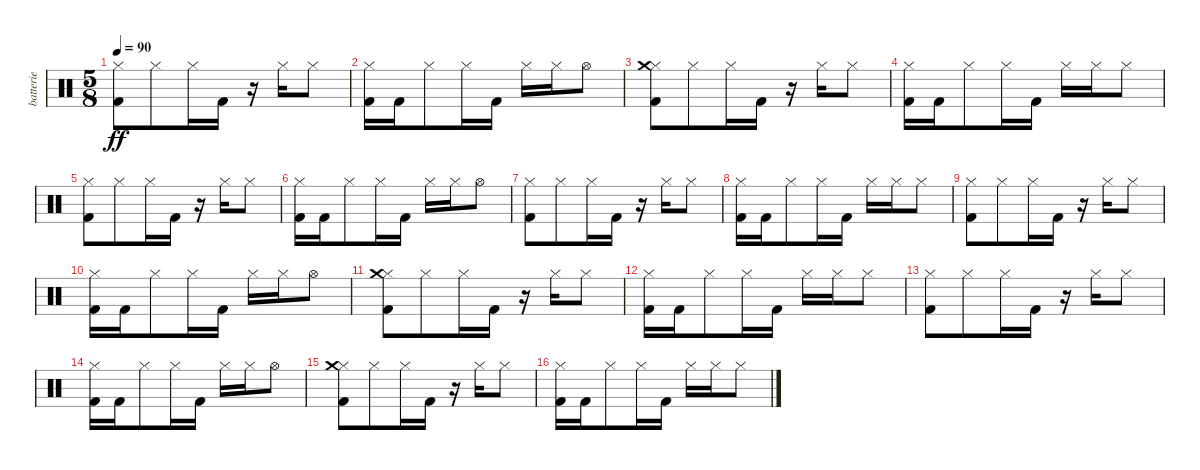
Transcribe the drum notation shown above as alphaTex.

\track ("batterie" "batterie") {instrument percussion}
\staff {score}
\articulation defaults
\ts (5 8)
\tempo 90
\clef neutral
\ks c
("Kick (hit) 2" "Hi-Hat (closed)").8{dy ff} "Hi-Hat (closed)".8 "Hi-Hat (closed)".16 "Kick (hit) 2".16 r.16 "Hi-Hat (closed)".16 "Hi-Hat (closed)".8 |
("Kick (hit) 2" "Hi-Hat (closed)").16 "Kick (hit) 2".16 "Hi-Hat (closed)".8 "Hi-Hat (closed)".16 "Kick (hit) 2".16 "Hi-Hat (closed)".16 "Hi-Hat (closed)".16 "Hi-Hat (open)".8 |
("Kick (hit) 2" "Hi-Hat (closed)" "Crash medium (hit)").8 "Hi-Hat (closed)".8 "Hi-Hat (closed)".16 "Kick (hit) 2".16 r.16 "Hi-Hat (closed)".16 "Hi-Hat (closed)".8 |
("Kick (hit) 2" "Hi-Hat (closed)").16 "Kick (hit) 2".16 "Hi-Hat (closed)".8 "Hi-Hat (closed)".16 "Kick (hit) 2".16 "Hi-Hat (closed)".16 "Hi-Hat (closed)".16 "Hi-Hat (closed)".8 |
("Kick (hit) 2" "Hi-Hat (closed)").8 "Hi-Hat (closed)".8 "Hi-Hat (closed)".16 "Kick (hit) 2".16 r.16 "Hi-Hat (closed)".16 "Hi-Hat (closed)".8 |
("Kick (hit) 2" "Hi-Hat (closed)").16 "Kick (hit) 2".16 "Hi-Hat (closed)".8 "Hi-Hat (closed)".16 "Kick (hit) 2".16 "Hi-Hat (closed)".16 "Hi-Hat (closed)".16 "Hi-Hat (open)".8 |
("Kick (hit) 2" "Hi-Hat (closed)").8 "Hi-Hat (closed)".8 "Hi-Hat (closed)".16 "Kick (hit) 2".16 r.16 "Hi-Hat (closed)".16 "Hi-Hat (closed)".8 |
("Kick (hit) 2" "Hi-Hat (closed)").16 "Kick (hit) 2".16 "Hi-Hat (closed)".8 "Hi-Hat (closed)".16 "Kick (hit) 2".16 "Hi-Hat (closed)".16 "Hi-Hat (closed)".16 "Hi-Hat (closed)".8 |
("Kick (hit) 2" "Hi-Hat (closed)").8 "Hi-Hat (closed)".8 "Hi-Hat (closed)".16 "Kick (hit) 2".16 r.16 "Hi-Hat (closed)".16 "Hi-Hat (closed)".8 |
("Kick (hit) 2" "Hi-Hat (closed)").16 "Kick (hit) 2".16 "Hi-Hat (closed)".8 "Hi-Hat (closed)".16 "Kick (hit) 2".16 "Hi-Hat (closed)".16 "Hi-Hat (closed)".16 "Hi-Hat (open)".8 |
("Kick (hit) 2" "Hi-Hat (closed)" "Crash medium (hit)").8 "Hi-Hat (closed)".8 "Hi-Hat (closed)".16 "Kick (hit) 2".16 r.16 "Hi-Hat (closed)".16 "Hi-Hat (closed)".8 |
("Kick (hit) 2" "Hi-Hat (closed)").16 "Kick (hit) 2".16 "Hi-Hat (closed)".8 "Hi-Hat (closed)".16 "Kick (hit) 2".16 "Hi-Hat (closed)".16 "Hi-Hat (closed)".16 "Hi-Hat (closed)".8 |
("Kick (hit) 2" "Hi-Hat (closed)").8 "Hi-Hat (closed)".8 "Hi-Hat (closed)".16 "Kick (hit) 2".16 r.16 "Hi-Hat (closed)".16 "Hi-Hat (closed)".8 |
("Kick (hit) 2" "Hi-Hat (closed)").16 "Kick (hit) 2".16 "Hi-Hat (closed)".8 "Hi-Hat (closed)".16 "Kick (hit) 2".16 "Hi-Hat (closed)".16 "Hi-Hat (closed)".16 "Hi-Hat (open)".8 |
("Kick (hit) 2" "Hi-Hat (closed)" "Crash medium (hit)").8 "Hi-Hat (closed)".8 "Hi-Hat (closed)".16 "Kick (hit) 2".16 r.16 "Hi-Hat (closed)".16 "Hi-Hat (closed)".8 |
("Kick (hit) 2" "Hi-Hat (closed)").16 "Kick (hit) 2".16 "Hi-Hat (closed)".8 "Hi-Hat (closed)".16 "Kick (hit) 2".16 "Hi-Hat (closed)".16 "Hi-Hat (closed)".16 "Hi-Hat (closed)".8
